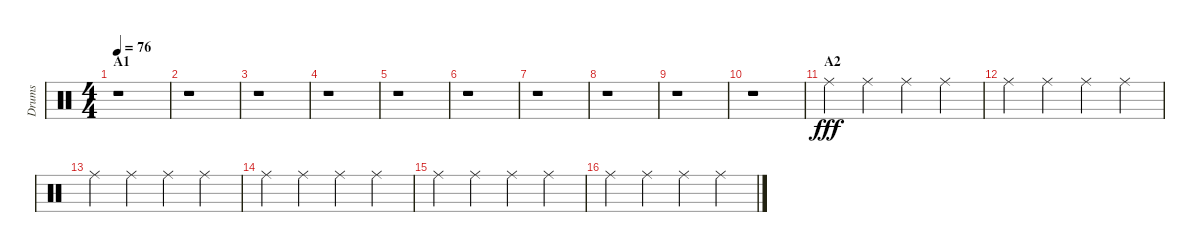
\track ("Drums" "Drums") {instrument percussion}
\staff {score}
\articulation defaults
\ts (4 4)
\section ("" "A1")
\tempo 76
\clef neutral
\ks c
r.1{dy fff} |
r.1 |
r.1 |
r.1 |
r.1 |
r.1 |
r.1 |
r.1 |
r.1 |
r.1 |
\section ("" "A2")
"Ride (middle)".4 "Ride (middle)".4 "Ride (middle)".4 "Ride (middle)".4 |
"Ride (middle)".4 "Ride (middle)".4 "Ride (middle)".4 "Ride (middle)".4 |
"Ride (middle)".4 "Ride (middle)".4 "Ride (middle)".4 "Ride (middle)".4 |
"Ride (middle)".4 "Ride (middle)".4 "Ride (middle)".4 "Ride (middle)".4 |
"Ride (middle)".4 "Ride (middle)".4 "Ride (middle)".4 "Ride (middle)".4 |
"Ride (middle)".4 "Ride (middle)".4 "Ride (middle)".4 "Ride (middle)".4
